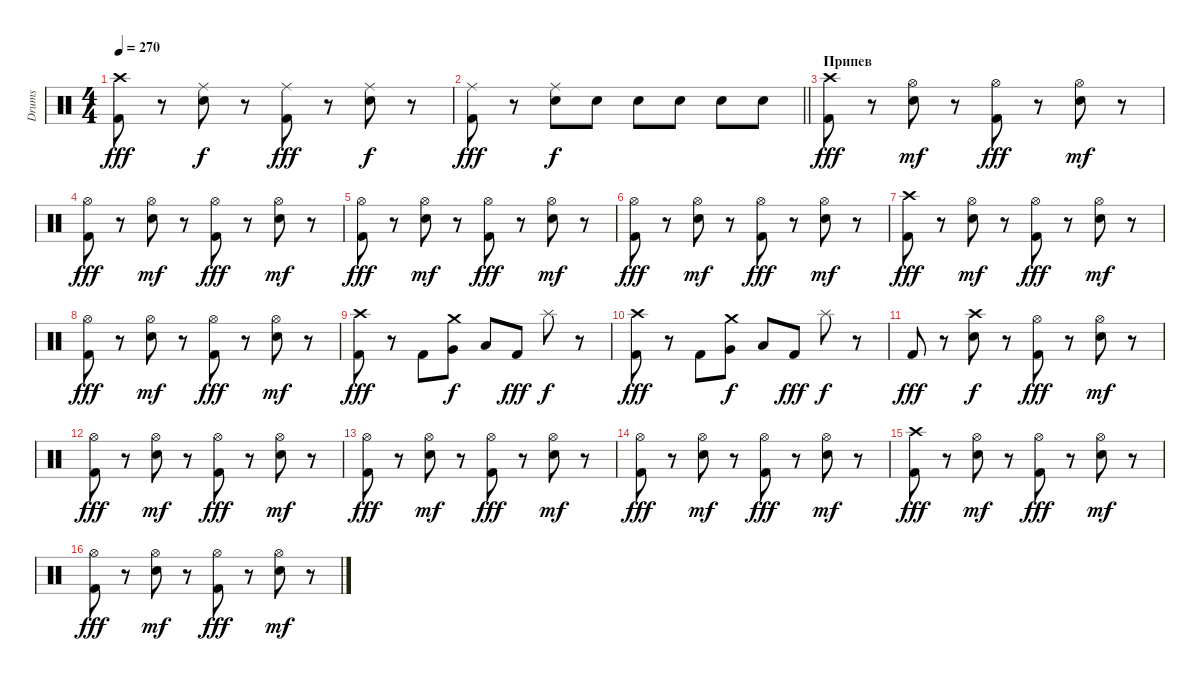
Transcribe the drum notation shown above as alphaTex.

\track ("Drums" "Drums") {instrument percussion}
\staff {score}
\articulation defaults
\ts (4 4)
\tempo 270
\clef neutral
\ks c
("Crash high (hit)" "Kick (hit) 2").8{dy fff} r.8 ("Ride (middle)" "Electric Snare (hit)").8{dy f} r.8 ("Ride (middle)" "Kick (hit) 2").8{dy fff} r.8 ("Ride (middle)" "Electric Snare (hit)").8{dy f} r.8 |
\barLineRight lightlight
("Ride (middle)" "Kick (hit) 2").8{dy fff} r.8 ("Ride (middle)" "Electric Snare (hit)").8{dy f} "Electric Snare (hit)".8 "Electric Snare (hit)".8 "Electric Snare (hit)".8 "Electric Snare (hit)".8 "Electric Snare (hit)".8 |
\section ("" "Припев")
("Crash high (hit)" "Kick (hit) 2").8{dy fff} r.8 ("Hi-Hat (open)" "Electric Snare (hit)").8{dy mf} r.8 ("Hi-Hat (open)" "Kick (hit) 2").8{dy fff} r.8 ("Hi-Hat (open)" "Electric Snare (hit)").8{dy mf} r.8 |
("Hi-Hat (open)" "Kick (hit) 2").8{dy fff} r.8 ("Hi-Hat (open)" "Electric Snare (hit)").8{dy mf} r.8 ("Hi-Hat (open)" "Kick (hit) 2").8{dy fff} r.8 ("Hi-Hat (open)" "Electric Snare (hit)").8{dy mf} r.8 |
("Hi-Hat (open)" "Kick (hit) 2").8{dy fff} r.8 ("Hi-Hat (open)" "Electric Snare (hit)").8{dy mf} r.8 ("Hi-Hat (open)" "Kick (hit) 2").8{dy fff} r.8 ("Hi-Hat (open)" "Electric Snare (hit)").8{dy mf} r.8 |
("Hi-Hat (open)" "Kick (hit) 2").8{dy fff} r.8 ("Hi-Hat (open)" "Electric Snare (hit)").8{dy mf} r.8 ("Hi-Hat (open)" "Kick (hit) 2").8{dy fff} r.8 ("Hi-Hat (open)" "Electric Snare (hit)").8{dy mf} r.8 |
("Crash high (hit)" "Kick (hit) 2").8{dy fff} r.8 ("Hi-Hat (open)" "Electric Snare (hit)").8{dy mf} r.8 ("Hi-Hat (open)" "Kick (hit) 2").8{dy fff} r.8 ("Hi-Hat (open)" "Electric Snare (hit)").8{dy mf} r.8 |
("Hi-Hat (open)" "Kick (hit) 2").8{dy fff} r.8 ("Hi-Hat (open)" "Electric Snare (hit)").8{dy mf} r.8 ("Hi-Hat (open)" "Kick (hit) 2").8{dy fff} r.8 ("Hi-Hat (open)" "Electric Snare (hit)").8{dy mf} r.8 |
("Crash high (hit)" "Kick (hit) 2").8{dy fff} r.8 "Kick (hit) 2".8 ("Crash medium (hit)" "Very Low Tom (hit)").8{dy f} "Low Floor Tom (hit)".8 "Kick (hit) 2".8{dy fff} "Splash (hit)".8{dy f} r.8 |
("Crash high (hit)" "Kick (hit) 2").8{dy fff} r.8 "Kick (hit) 2".8 ("Crash medium (hit)" "Very Low Tom (hit)").8{dy f} "Low Floor Tom (hit)".8 "Kick (hit) 2".8{dy fff} "Splash (hit)".8{dy f} r.8 |
"Kick (hit) 2".8{dy fff} r.8 ("Crash high (hit)" "Electric Snare (hit)").8{dy f} r.8 ("Hi-Hat (open)" "Kick (hit) 2").8{dy fff} r.8 ("Hi-Hat (open)" "Electric Snare (hit)").8{dy mf} r.8 |
("Hi-Hat (open)" "Kick (hit) 2").8{dy fff} r.8 ("Hi-Hat (open)" "Electric Snare (hit)").8{dy mf} r.8 ("Hi-Hat (open)" "Kick (hit) 2").8{dy fff} r.8 ("Hi-Hat (open)" "Electric Snare (hit)").8{dy mf} r.8 |
("Hi-Hat (open)" "Kick (hit) 2").8{dy fff} r.8 ("Hi-Hat (open)" "Electric Snare (hit)").8{dy mf} r.8 ("Hi-Hat (open)" "Kick (hit) 2").8{dy fff} r.8 ("Hi-Hat (open)" "Electric Snare (hit)").8{dy mf} r.8 |
("Hi-Hat (open)" "Kick (hit) 2").8{dy fff} r.8 ("Hi-Hat (open)" "Electric Snare (hit)").8{dy mf} r.8 ("Hi-Hat (open)" "Kick (hit) 2").8{dy fff} r.8 ("Hi-Hat (open)" "Electric Snare (hit)").8{dy mf} r.8 |
("Crash high (hit)" "Kick (hit) 2").8{dy fff} r.8 ("Hi-Hat (open)" "Electric Snare (hit)").8{dy mf} r.8 ("Hi-Hat (open)" "Kick (hit) 2").8{dy fff} r.8 ("Hi-Hat (open)" "Electric Snare (hit)").8{dy mf} r.8 |
("Hi-Hat (open)" "Kick (hit) 2").8{dy fff} r.8 ("Hi-Hat (open)" "Electric Snare (hit)").8{dy mf} r.8 ("Hi-Hat (open)" "Kick (hit) 2").8{dy fff} r.8 ("Hi-Hat (open)" "Electric Snare (hit)").8{dy mf} r.8
